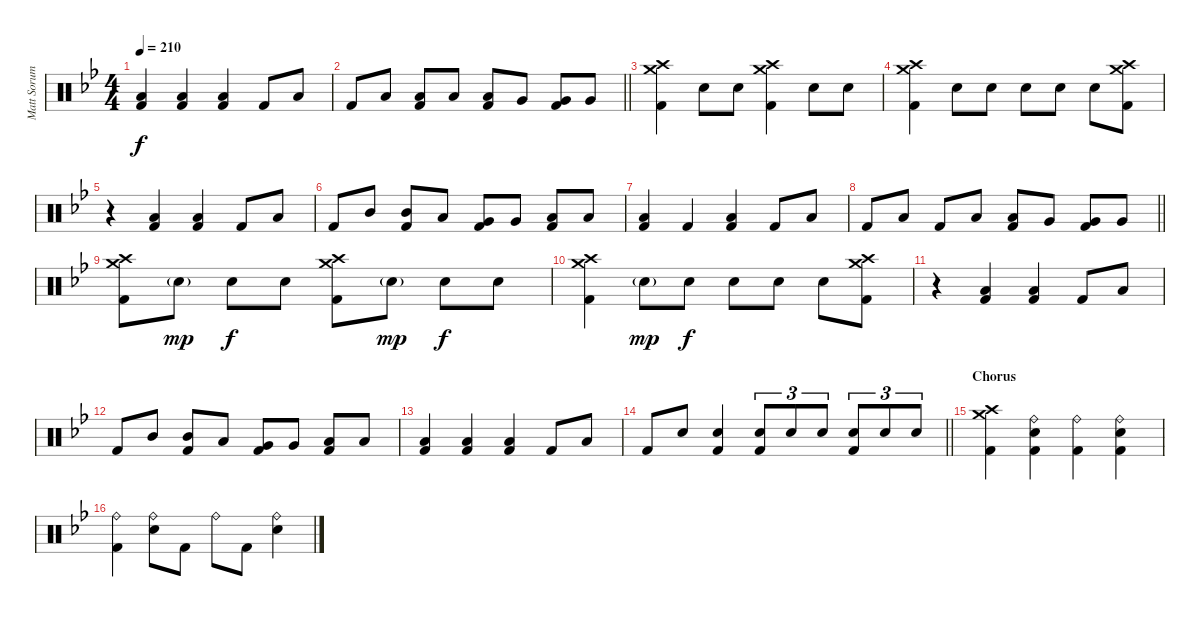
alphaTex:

\track ("Matt Sorum - Drums" "Matt Sorum") {instrument percussion}
\staff {score}
\articulation defaults
\ts (4 4)
\tempo 210
\clef neutral
\ks bb
("Low Tom (hit)" "Kick (hit) 2").4{dy f} ("Low Tom (hit)" "Kick (hit) 2").4 ("Low Tom (hit)" "Kick (hit) 2").4 "Kick (hit) 2".8 "Low Tom (hit)".8 |
\barLineRight lightlight "Kick (hit) 2".8 "Low Tom (hit)".8
("Low Tom (hit)" "Kick (hit) 2").8 "Low Tom (hit)".8 ("Low Tom (hit)" "Kick (hit) 2").8 "Very Low Tom (hit)".8 ("Very Low Tom (hit)" "Kick (hit) 2").8 "Very Low Tom (hit)".8 |
("Crash medium (hit)" "Crash high (hit)" "Kick (hit) 2").4 "Snare (hit) 2".8 "Snare (hit) 2".8 ("Crash high (hit)" "Crash medium (hit)" "Kick (hit) 2").4 "Snare (hit) 2".8 "Snare (hit) 2".8 |
("Crash medium (hit)" "Crash high (hit)" "Kick (hit) 2").4 "Snare (hit) 2".8 "Snare (hit) 2".8 "Snare (hit) 2".8 "Snare (hit) 2".8 "Snare (hit) 2".8 ("Crash medium (hit)" "Crash high (hit)" "Kick (hit) 2").8 |
r.4 ("Low Tom (hit)" "Kick (hit) 2").4 ("Low Tom (hit)" "Kick (hit) 2").4 "Kick (hit) 2".8 "Low Tom (hit)".8 |
"Kick (hit) 2".8 "Mid Tom (hit)".8 ("Mid Tom (hit)" "Kick (hit) 2").8 "Low Tom (hit)".8 ("Very Low Tom (hit)" "Kick (hit) 2").8 "Very Low Tom (hit)".8 ("Low Floor Tom (hit)" "Kick (hit) 2").8 "Low Floor Tom (hit)".8 |
("Low Tom (hit)" "Kick (hit) 2").4 "Kick (hit) 2".4 ("Low Tom (hit)" "Kick (hit) 2").4 "Kick (hit) 2".8 "Low Tom (hit)".8 |
\barLineRight lightlight "Kick (hit) 2".8 "Low Tom (hit)".8 "Kick (hit) 2".8 "Low Tom (hit)".8
("Low Tom (hit)" "Kick (hit) 2").8 "Very Low Tom (hit)".8 ("Very Low Tom (hit)" "Kick (hit) 2").8 "Very Low Tom (hit)".8 |
("Crash medium (hit)" "Crash high (hit)" "Kick (hit) 2").8 "Snare (hit) 2"{g}.8{dy mp} "Snare (hit) 2".8{dy f} "Snare (hit) 2".8 ("Crash medium (hit)" "Crash high (hit)" "Kick (hit) 2").8 "Snare (hit) 2"{g}.8{dy mp} "Snare (hit) 2".8{dy f} "Snare (hit) 2".8 |
("Crash medium (hit)" "Crash high (hit)" "Kick (hit) 2").4 "Snare (hit) 2"{g}.8{dy mp} "Snare (hit) 2".8{dy f} "Snare (hit) 2".8 "Snare (hit) 2".8 "Snare (hit) 2".8 ("Crash medium (hit)" "Crash high (hit)" "Kick (hit) 2").8 |
r.4 ("Low Tom (hit)" "Kick (hit) 2").4 ("Low Tom (hit)" "Kick (hit) 2").4 "Kick (hit) 2".8 "Low Tom (hit)".8 |
"Kick (hit) 2".8 "Mid Tom (hit)".8 ("Mid Tom (hit)" "Kick (hit) 2").8 "Low Tom (hit)".8 ("Very Low Tom (hit)" "Kick (hit) 2").8 "Very Low Tom (hit)".8 ("Low Floor Tom (hit)" "Kick (hit) 2").8 "Low Floor Tom (hit)".8 |
("Low Tom (hit)" "Kick (hit) 2").4 ("Low Tom (hit)" "Kick (hit) 2").4 ("Low Tom (hit)" "Kick (hit) 2").4 "Kick (hit) 2".8 "Low Tom (hit)".8 |
\barLineRight lightlight "Kick (hit) 2".8 "Snare (hit) 2".8
("Snare (hit) 2" "Kick (hit) 2").4 ("Snare (hit) 2" "Kick (hit) 2").8{tu (3 2)} "Snare (hit) 2".8{tu (3 2)} "Snare (hit) 2".8{tu (3 2)} ("Snare (hit) 2" "Kick (hit) 2").8{tu (3 2)} "Snare (hit) 2".8{tu (3 2)} "Snare (hit) 2".8{tu (3 2)} |
\section ("" "Chorus")
("Crash medium (hit)" "Crash high (hit)" "Kick (hit) 2").4 ("Ride (bell)" "Snare (hit) 2" "Kick (hit) 2").4 ("Ride (bell)" "Kick (hit) 2").4 ("Ride (bell)" "Snare (hit) 2" "Kick (hit) 2").4 |
("Ride (bell)" "Kick (hit) 2").4 ("Ride (bell)" "Snare (hit) 2").8 "Kick (hit) 2".8 "Ride (bell)".8 "Kick (hit) 2".8 ("Ride (bell)" "Snare (hit) 2").4
